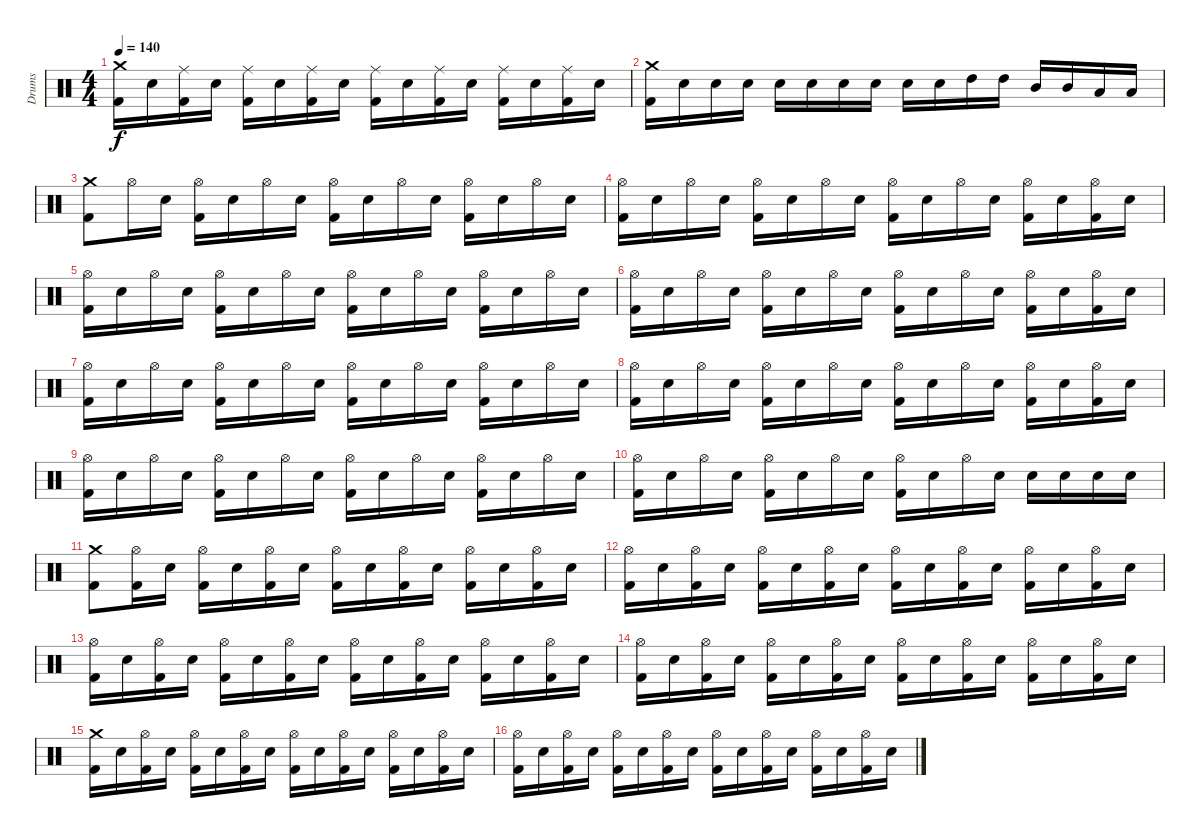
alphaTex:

\track ("Drums" "Drums") {instrument percussion}
\staff {score}
\articulation defaults
\ts (4 4)
\tempo 140
\clef neutral
\ks c
("Crash medium (hit)" "Kick (hit) 2").16{dy f} "Electric Snare (hit)".16 ("Ride (middle)" "Kick (hit) 2").16 "Electric Snare (hit)".16 ("Ride (middle)" "Kick (hit) 2").16 "Electric Snare (hit)".16 ("Ride (middle)" "Kick (hit) 2").16 "Electric Snare (hit)".16 ("Ride (middle)" "Kick (hit) 2").16 "Electric Snare (hit)".16 ("Ride (middle)" "Kick (hit) 2").16 "Electric Snare (hit)".16 ("Ride (middle)" "Kick (hit) 2").16 "Electric Snare (hit)".16 ("Ride (middle)" "Kick (hit) 2").16 "Electric Snare (hit)".16 |
("Crash medium (hit)" "Kick (hit) 2").16 "Electric Snare (hit)".16 "Electric Snare (hit)".16 "Electric Snare (hit)".16 "Electric Snare (hit)".16 "Electric Snare (hit)".16 "Electric Snare (hit)".16 "Electric Snare (hit)".16 "Electric Snare (hit)".16 "Electric Snare (hit)".16 "High Tom (hit)".16 "High Tom (hit)".16 "Mid Tom (hit)".16 "Mid Tom (hit)".16 "Low Tom (hit)".16 "Low Tom (hit)".16 |
("Crash medium (hit)" "Kick (hit) 2").8 "Hi-Hat (open)".16 "Electric Snare (hit)".16 ("Hi-Hat (open)" "Kick (hit) 2").16 "Electric Snare (hit)".16 "Hi-Hat (open)".16 "Electric Snare (hit)".16 ("Hi-Hat (open)" "Kick (hit) 2").16 "Electric Snare (hit)".16 "Hi-Hat (open)".16 "Electric Snare (hit)".16 ("Hi-Hat (open)" "Kick (hit) 2").16 "Electric Snare (hit)".16 "Hi-Hat (open)".16 "Electric Snare (hit)".16 |
("Hi-Hat (open)" "Kick (hit) 2").16 "Electric Snare (hit)".16 "Hi-Hat (open)".16 "Electric Snare (hit)".16 ("Hi-Hat (open)" "Kick (hit) 2").16 "Electric Snare (hit)".16 "Hi-Hat (open)".16 "Electric Snare (hit)".16 ("Hi-Hat (open)" "Kick (hit) 2").16 "Electric Snare (hit)".16 "Hi-Hat (open)".16 "Electric Snare (hit)".16 ("Hi-Hat (open)" "Kick (hit) 2").16 "Electric Snare (hit)".16 ("Hi-Hat (open)" "Kick (hit) 2").16 "Electric Snare (hit)".16 |
("Hi-Hat (open)" "Kick (hit) 2").16 "Electric Snare (hit)".16 "Hi-Hat (open)".16 "Electric Snare (hit)".16 ("Hi-Hat (open)" "Kick (hit) 2").16 "Electric Snare (hit)".16 "Hi-Hat (open)".16 "Electric Snare (hit)".16 ("Hi-Hat (open)" "Kick (hit) 2").16 "Electric Snare (hit)".16 "Hi-Hat (open)".16 "Electric Snare (hit)".16 ("Hi-Hat (open)" "Kick (hit) 2").16 "Electric Snare (hit)".16 "Hi-Hat (open)".16 "Electric Snare (hit)".16 |
("Hi-Hat (open)" "Kick (hit) 2").16 "Electric Snare (hit)".16 "Hi-Hat (open)".16 "Electric Snare (hit)".16 ("Hi-Hat (open)" "Kick (hit) 2").16 "Electric Snare (hit)".16 "Hi-Hat (open)".16 "Electric Snare (hit)".16 ("Hi-Hat (open)" "Kick (hit) 2").16 "Electric Snare (hit)".16 "Hi-Hat (open)".16 "Electric Snare (hit)".16 ("Hi-Hat (open)" "Kick (hit) 2").16 "Electric Snare (hit)".16 ("Hi-Hat (open)" "Kick (hit) 2").16 "Electric Snare (hit)".16 |
("Hi-Hat (open)" "Kick (hit) 2").16 "Electric Snare (hit)".16 "Hi-Hat (open)".16 "Electric Snare (hit)".16 ("Hi-Hat (open)" "Kick (hit) 2").16 "Electric Snare (hit)".16 "Hi-Hat (open)".16 "Electric Snare (hit)".16 ("Hi-Hat (open)" "Kick (hit) 2").16 "Electric Snare (hit)".16 "Hi-Hat (open)".16 "Electric Snare (hit)".16 ("Hi-Hat (open)" "Kick (hit) 2").16 "Electric Snare (hit)".16 "Hi-Hat (open)".16 "Electric Snare (hit)".16 |
("Hi-Hat (open)" "Kick (hit) 2").16 "Electric Snare (hit)".16 "Hi-Hat (open)".16 "Electric Snare (hit)".16 ("Hi-Hat (open)" "Kick (hit) 2").16 "Electric Snare (hit)".16 "Hi-Hat (open)".16 "Electric Snare (hit)".16 ("Hi-Hat (open)" "Kick (hit) 2").16 "Electric Snare (hit)".16 "Hi-Hat (open)".16 "Electric Snare (hit)".16 ("Hi-Hat (open)" "Kick (hit) 2").16 "Electric Snare (hit)".16 ("Hi-Hat (open)" "Kick (hit) 2").16 "Electric Snare (hit)".16 |
("Hi-Hat (open)" "Kick (hit) 2").16 "Electric Snare (hit)".16 "Hi-Hat (open)".16 "Electric Snare (hit)".16 ("Hi-Hat (open)" "Kick (hit) 2").16 "Electric Snare (hit)".16 "Hi-Hat (open)".16 "Electric Snare (hit)".16 ("Hi-Hat (open)" "Kick (hit) 2").16 "Electric Snare (hit)".16 "Hi-Hat (open)".16 "Electric Snare (hit)".16 ("Hi-Hat (open)" "Kick (hit) 2").16 "Electric Snare (hit)".16 "Hi-Hat (open)".16 "Electric Snare (hit)".16 |
("Hi-Hat (open)" "Kick (hit) 2").16 "Electric Snare (hit)".16 "Hi-Hat (open)".16 "Electric Snare (hit)".16 ("Hi-Hat (open)" "Kick (hit) 2").16 "Electric Snare (hit)".16 "Hi-Hat (open)".16 "Electric Snare (hit)".16 ("Hi-Hat (open)" "Kick (hit) 2").16 "Electric Snare (hit)".16 "Hi-Hat (open)".16 "Electric Snare (hit)".16 "Electric Snare (hit)".16 "Electric Snare (hit)".16 "Electric Snare (hit)".16 "Electric Snare (hit)".16 |
("Crash medium (hit)" "Kick (hit) 2").8 ("Hi-Hat (open)" "Kick (hit) 2").16 "Electric Snare (hit)".16 ("Hi-Hat (open)" "Kick (hit) 2").16 "Electric Snare (hit)".16 ("Hi-Hat (open)" "Kick (hit) 2").16 "Electric Snare (hit)".16 ("Hi-Hat (open)" "Kick (hit) 2").16 "Electric Snare (hit)".16 ("Hi-Hat (open)" "Kick (hit) 2").16 "Electric Snare (hit)".16 ("Hi-Hat (open)" "Kick (hit) 2").16 "Electric Snare (hit)".16 ("Hi-Hat (open)" "Kick (hit) 2").16 "Electric Snare (hit)".16 |
("Hi-Hat (open)" "Kick (hit) 2").16 "Electric Snare (hit)".16 ("Hi-Hat (open)" "Kick (hit) 2").16 "Electric Snare (hit)".16 ("Hi-Hat (open)" "Kick (hit) 2").16 "Electric Snare (hit)".16 ("Hi-Hat (open)" "Kick (hit) 2").16 "Electric Snare (hit)".16 ("Hi-Hat (open)" "Kick (hit) 2").16 "Electric Snare (hit)".16 ("Hi-Hat (open)" "Kick (hit) 2").16 "Electric Snare (hit)".16 ("Hi-Hat (open)" "Kick (hit) 2").16 "Electric Snare (hit)".16 ("Hi-Hat (open)" "Kick (hit) 2").16 "Electric Snare (hit)".16 |
("Hi-Hat (open)" "Kick (hit) 2").16 "Electric Snare (hit)".16 ("Hi-Hat (open)" "Kick (hit) 2").16 "Electric Snare (hit)".16 ("Hi-Hat (open)" "Kick (hit) 2").16 "Electric Snare (hit)".16 ("Hi-Hat (open)" "Kick (hit) 2").16 "Electric Snare (hit)".16 ("Hi-Hat (open)" "Kick (hit) 2").16 "Electric Snare (hit)".16 ("Hi-Hat (open)" "Kick (hit) 2").16 "Electric Snare (hit)".16 ("Hi-Hat (open)" "Kick (hit) 2").16 "Electric Snare (hit)".16 ("Hi-Hat (open)" "Kick (hit) 2").16 "Electric Snare (hit)".16 |
("Hi-Hat (open)" "Kick (hit) 2").16 "Electric Snare (hit)".16 ("Hi-Hat (open)" "Kick (hit) 2").16 "Electric Snare (hit)".16 ("Hi-Hat (open)" "Kick (hit) 2").16 "Electric Snare (hit)".16 ("Hi-Hat (open)" "Kick (hit) 2").16 "Electric Snare (hit)".16 ("Hi-Hat (open)" "Kick (hit) 2").16 "Electric Snare (hit)".16 ("Hi-Hat (open)" "Kick (hit) 2").16 "Electric Snare (hit)".16 ("Hi-Hat (open)" "Kick (hit) 2").16 "Electric Snare (hit)".16 ("Hi-Hat (open)" "Kick (hit) 2").16 "Electric Snare (hit)".16 |
("Crash medium (hit)" "Kick (hit) 2").16 "Electric Snare (hit)".16 ("Hi-Hat (open)" "Kick (hit) 2").16 "Electric Snare (hit)".16 ("Hi-Hat (open)" "Kick (hit) 2").16 "Electric Snare (hit)".16 ("Hi-Hat (open)" "Kick (hit) 2").16 "Electric Snare (hit)".16 ("Hi-Hat (open)" "Kick (hit) 2").16 "Electric Snare (hit)".16 ("Hi-Hat (open)" "Kick (hit) 2").16 "Electric Snare (hit)".16 ("Hi-Hat (open)" "Kick (hit) 2").16 "Electric Snare (hit)".16 ("Hi-Hat (open)" "Kick (hit) 2").16 "Electric Snare (hit)".16 |
("Hi-Hat (open)" "Kick (hit) 2").16 "Electric Snare (hit)".16 ("Hi-Hat (open)" "Kick (hit) 2").16 "Electric Snare (hit)".16 ("Hi-Hat (open)" "Kick (hit) 2").16 "Electric Snare (hit)".16 ("Hi-Hat (open)" "Kick (hit) 2").16 "Electric Snare (hit)".16 ("Hi-Hat (open)" "Kick (hit) 2").16 "Electric Snare (hit)".16 ("Hi-Hat (open)" "Kick (hit) 2").16 "Electric Snare (hit)".16 ("Hi-Hat (open)" "Kick (hit) 2").16 "Electric Snare (hit)".16 ("Hi-Hat (open)" "Kick (hit) 2").16 "Electric Snare (hit)".16
